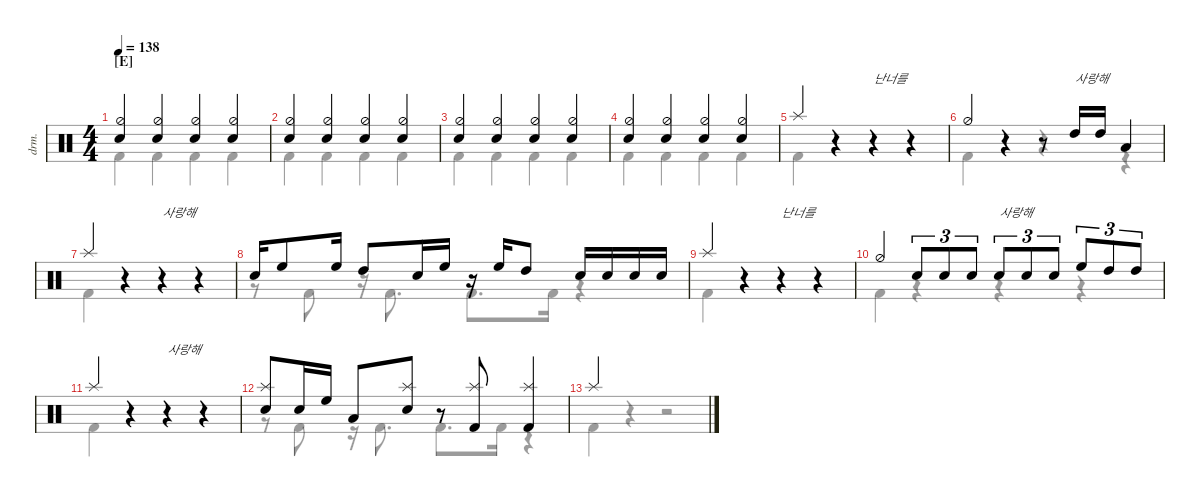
\defaultSystemsLayout 4
\hideDynamics
\bracketExtendMode nobrackets
\track ("Drumkit" "drm.") {instrument percussion}
\staff {score}
\articulation defaults
\voice
\ts (4 4)
\section ("E" "")
\tempo 138
\clef neutral
\ks c
("Snare (hit) 2" "Hi-Hat (half)").4{dy mf beam Up} ("Snare (hit) 2" "Hi-Hat (half)").4{beam Up} ("Snare (hit) 2" "Hi-Hat (half)").4{beam Up} ("Snare (hit) 2" "Hi-Hat (half)").4{beam Up} |
("Snare (hit) 2" "Hi-Hat (half)").4{beam Up} ("Snare (hit) 2" "Hi-Hat (half)").4{beam Up} ("Snare (hit) 2" "Hi-Hat (half)").4{beam Up} ("Snare (hit) 2" "Hi-Hat (half)").4{beam Up} |
("Snare (hit) 2" "Hi-Hat (half)").4{beam Up} ("Snare (hit) 2" "Hi-Hat (half)").4{beam Up} ("Snare (hit) 2" "Hi-Hat (half)").4{beam Up} ("Snare (hit) 2" "Hi-Hat (half)").4{beam Up} |
("Snare (hit) 2" "Hi-Hat (half)").4{beam Up} ("Snare (hit) 2" "Hi-Hat (half)").4{beam Up} ("Snare (hit) 2" "Hi-Hat (half)").4{beam Up} ("Snare (hit) 2" "Hi-Hat (half)").4{beam Up} |
"Splash (hit)".4{beam Up} r.4{beam Up} r.4{txt "난너를" beam Up} r.4{beam Up} |
"Hi-Hat (half)".4{beam Up} r.4{beam Up} r.8{beam Up} "High Tom (hit)".16{txt "사랑해" beam Up} "High Tom (hit)".16{beam Up} "Low Tom (hit)".4{beam Up} |
"Splash (hit)".4{beam Up} r.4{beam Up} r.4{txt "사랑해" beam Up} r.4{beam Up} |
"Snare (hit) 2".16{beam Up} "High Floor Tom (hit)".8{beam Up} "High Floor Tom (hit)".16{beam Up} "High Tom (hit)".8{beam Up} "Snare (hit) 2".16{beam Up} "High Floor Tom (hit)".16{beam Up} r.16{beam Up} "High Floor Tom (hit)".16{beam Up} "High Tom (hit)".8{beam Up} "Snare (hit) 2".16{beam Up} "Snare (hit) 2".16{beam Up} "Snare (hit) 2".16{beam Up} "Snare (hit) 2".16{beam Up} |
"Splash (hit)".4{beam Up} r.4{beam Up} r.4{txt "난너를" beam Up} r.4{beam Up} |
"Hi-Hat (half)".4{beam Up} "Snare (hit) 2".8{tu (3 2) beam Up} "Snare (hit) 2".8{tu (3 2) beam Up} "Snare (hit) 2".8{tu (3 2) beam Up} "Snare (hit) 2".8{tu (3 2) txt "사랑해" beam Up} "Snare (hit) 2".8{tu (3 2) beam Up} "Snare (hit) 2".8{tu (3 2) beam Up} "High Floor Tom (hit)".8{tu (3 2) beam Up} "High Tom (hit)".8{tu (3 2) beam Up} "High Tom (hit)".8{tu (3 2) beam Up} |
"Splash (hit)".4{beam Up} r.4{beam Up} r.4{txt "사랑해" beam Up} r.4{beam Up} |
("Splash (hit)" "Snare (hit) 2").8{beam Up} "Snare (hit) 2".16{beam Up} "High Floor Tom (hit)".16{beam Up} "Low Tom (hit)".8{beam Up} ("Snare (hit) 2" "Splash (hit)").8{beam Up} r.8{beam Up} ("Splash (hit)" "Kick (hit) 2").8{beam Up} ("Splash (hit)" "Kick (hit) 2").4{beam Up} |
"Splash (hit)".4{beam Up} |
|
|
\voice
\clef neutral
\ottava regular
\simile none
\ks c
|
|
|
|
|
|
|
|
|
|
|
|
|
|
|
\voice
\clef neutral
\ottava regular
\simile none
\ks c "Kick (hit) 2".4{dy mf beam Down} "Kick (hit) 2".4{beam Down} "Kick (hit) 2".4{beam Down} "Kick (hit) 2".4{beam Down}
|
"Kick (hit) 2".4{beam Down} "Kick (hit) 2".4{beam Down} "Kick (hit) 2".4{beam Down} "Kick (hit) 2".4{beam Down} |
"Kick (hit) 2".4{beam Down} "Kick (hit) 2".4{beam Down} "Kick (hit) 2".4{beam Down} "Kick (hit) 2".4{beam Down} |
"Kick (hit) 2".4{beam Down} "Kick (hit) 2".4{beam Down} "Kick (hit) 2".4{beam Down} "Kick (hit) 2".4{beam Down} |
"Kick (hit) 2".4{beam Down} r.4{beam Down} r.4{beam Down} r.4{beam Down} |
"Kick (hit) 2".4{beam Down} r.4{beam Down} r.4{beam Down} r.4{beam Down} |
"Kick (hit) 2".4{beam Down} r.4{beam Down} r.4{beam Down} r.4{beam Down} |
r.8{beam Down} "Kick (hit) 2".8{beam Down} r.16{beam Down} "Kick (hit) 2".8{d beam Down} "Kick (hit) 2".8{d beam Down} "Kick (hit) 2".16{beam Down} r.4{beam Down} |
"Kick (hit) 2".4{beam Down} r.4{beam Down} r.4{beam Down} r.4{beam Down} |
"Kick (hit) 2".4{beam Down} r.4{beam Down} r.4{beam Down} r.4{beam Down} |
"Kick (hit) 2".4{beam Down} r.4{beam Down} r.4{beam Down} r.4{beam Down} |
r.8{beam Down} "Kick (hit) 2".8{beam Down} r.16{beam Down} "Kick (hit) 2".8{d beam Down} "Kick (hit) 2".8{d beam Down} "Kick (hit) 2".16{beam Down} r.4{beam Down} |
"Kick (hit) 2".4{beam Down} r.4{beam Down} r.2{beam Down} |
|
|
